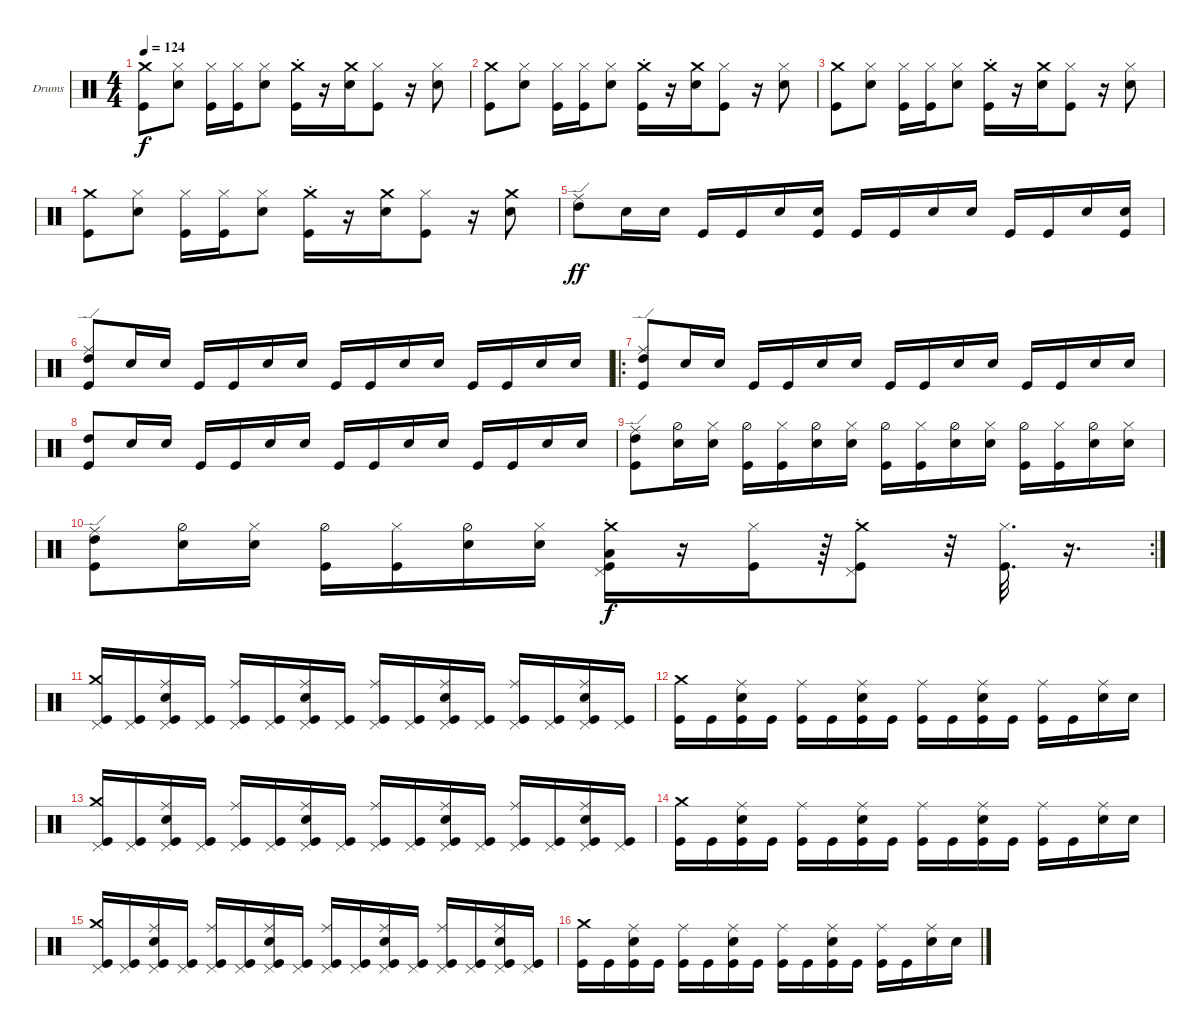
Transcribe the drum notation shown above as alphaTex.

\defaultSystemsLayout 4
\bracketExtendMode groupsimilarinstruments
\firstSystemTrackNameOrientation horizontal
\otherSystemsTrackNameOrientation horizontal
\track ("Drumkit" "Drums") {instrument percussion}
\staff {score}
\articulation defaults
\ts (4 4)
\tempo 124
\clef neutral
\ks c
("Kick (hit)" "Crash medium (hit)").8{dy f} ("Snare (hit) 2" "Hi-Hat (closed)").8 ("Hi-Hat (closed)" "Kick (hit)").16 ("Kick (hit)" "Hi-Hat (closed)").16 ("Snare (hit) 2" "Hi-Hat (closed)").8 ("Kick (hit)"{st} "Crash medium (hit)"{st}).16 r.16 ("Crash medium (hit)" "Snare (hit) 2").16 ("Kick (hit)" "Hi-Hat (closed)").8 r.16 ("Hi-Hat (closed)" "Snare (hit) 2").8 |
("Kick (hit)" "Crash medium (hit)").8 ("Snare (hit) 2" "Hi-Hat (closed)").8 ("Hi-Hat (closed)" "Kick (hit)").16 ("Kick (hit)" "Hi-Hat (closed)").16 ("Snare (hit) 2" "Hi-Hat (closed)").8 ("Kick (hit)"{st} "Crash medium (hit)"{st}).16 r.16 ("Crash medium (hit)" "Snare (hit) 2").16 ("Kick (hit)" "Hi-Hat (closed)").8 r.16 ("Hi-Hat (closed)" "Snare (hit) 2").8 |
("Kick (hit)" "Crash medium (hit)").8 ("Snare (hit) 2" "Hi-Hat (closed)").8 ("Hi-Hat (closed)" "Kick (hit)").16 ("Kick (hit)" "Hi-Hat (closed)").16 ("Snare (hit) 2" "Hi-Hat (closed)").8 ("Kick (hit)"{st} "Crash medium (hit)"{st}).16 r.16 ("Crash medium (hit)" "Snare (hit) 2").16 ("Kick (hit)" "Hi-Hat (closed)").8 r.16 ("Hi-Hat (closed)" "Snare (hit) 2").8 |
("Kick (hit)" "Crash medium (hit)").8 ("Snare (hit) 2" "Hi-Hat (closed)").8 ("Hi-Hat (closed)" "Kick (hit)").16 ("Kick (hit)" "Hi-Hat (closed)").16 ("Snare (hit) 2" "Hi-Hat (closed)").8 ("Kick (hit)"{st} "Crash medium (hit)"{st}).16 r.16 ("Crash medium (hit)" "Snare (hit) 2").16 ("Kick (hit)" "Hi-Hat (closed)").8 r.16 ("Snare (hit) 2" "Crash medium (hit)").8 |
("Ride (edge)" "High Tom (hit)").8{dy ff} "Snare (hit) 2".16 "Snare (hit) 2".16 "Kick (hit)".16 "Kick (hit)".16 "Snare (hit) 2".16 ("Snare (hit) 2" "Kick (hit)").16 "Kick (hit)".16 "Kick (hit)".16 "Snare (hit) 2".16 "Snare (hit) 2".16 "Kick (hit)".16 "Kick (hit)".16 "Snare (hit) 2".16 ("Snare (hit) 2" "Kick (hit)").16 |
("Kick (hit)" "Ride (edge)" "High Tom (hit)").8 "Snare (hit) 2".16 "Snare (hit) 2".16 "Kick (hit)".16 "Kick (hit)".16 "Snare (hit) 2".16 "Snare (hit) 2".16 "Kick (hit)".16 "Kick (hit)".16 "Snare (hit) 2".16 "Snare (hit) 2".16 "Kick (hit)".16 "Kick (hit)".16 "Snare (hit) 2".16 "Snare (hit) 2".16 |
\ro
("Kick (hit)" "Ride (edge)" "High Tom (hit)").8 "Snare (hit) 2".16 "Snare (hit) 2".16 "Kick (hit)".16 "Kick (hit)".16 "Snare (hit) 2".16 "Snare (hit) 2".16 "Kick (hit)".16 "Kick (hit)".16 "Snare (hit) 2".16 "Snare (hit) 2".16 "Kick (hit)".16 "Kick (hit)".16 "Snare (hit) 2".16 "Snare (hit) 2".16 |
("Kick (hit)" "High Tom (hit)").8 "Snare (hit) 2".16 "Snare (hit) 2".16 "Kick (hit)".16 "Kick (hit)".16 "Snare (hit) 2".16 "Snare (hit) 2".16 "Kick (hit)".16 "Kick (hit)".16 "Snare (hit) 2".16 "Snare (hit) 2".16 "Kick (hit)".16 "Kick (hit)".16 "Snare (hit) 2".16 "Snare (hit) 2".16 |
("Kick (hit)" "Ride (edge)" "High Tom (hit)").8 ("Snare (hit) 2" "Hi-Hat (half)").16 ("Snare (hit) 2" "Hi-Hat (closed)").16 ("Kick (hit)" "Hi-Hat (half)").16 ("Kick (hit)" "Hi-Hat (closed)").16 ("Snare (hit) 2" "Hi-Hat (half)").16 ("Snare (hit) 2" "Hi-Hat (closed)").16 ("Kick (hit)" "Hi-Hat (half)").16 ("Kick (hit)" "Hi-Hat (closed)").16 ("Snare (hit) 2" "Hi-Hat (half)").16 ("Snare (hit) 2" "Hi-Hat (closed)").16 ("Kick (hit)" "Hi-Hat (half)").16 ("Kick (hit)" "Hi-Hat (closed)").16 ("Snare (hit) 2" "Hi-Hat (half)").16 ("Snare (hit) 2" "Hi-Hat (closed)").16 |
\rc 2
("Kick (hit)" "Ride (edge)" "High Tom (hit)").8 ("Snare (hit) 2" "Hi-Hat (half)").16 ("Snare (hit) 2" "Hi-Hat (closed)").16 ("Kick (hit)" "Hi-Hat (half)").16 ("Kick (hit)" "Hi-Hat (closed)").16 ("Snare (hit) 2" "Hi-Hat (half)").16 ("Snare (hit) 2" "Hi-Hat (closed)").16 ("Kick (hit)" "Crash medium (hit)"{st} "Pedal Hi-Hat (hit)" "Low Tom (hit)").16{dy f} r.16 ("Hi-Hat (closed)" "Kick (hit)").16 r.64 ("Kick (hit)" "Crash medium (hit)"{st} "Pedal Hi-Hat (hit)").8 r.32 ("Hi-Hat (closed)" "Kick (hit)").32{d} r.16{d} |
("Crash medium (hit)" "Kick (hit)" "Pedal Hi-Hat (hit)").16 ("Kick (hit)" "Pedal Hi-Hat (hit)").16 ("Snare (hit) 2" "Ride (middle)" "Kick (hit)" "Pedal Hi-Hat (hit)").16 ("Kick (hit)" "Pedal Hi-Hat (hit)").16 ("Ride (middle)" "Kick (hit)" "Pedal Hi-Hat (hit)").16 ("Kick (hit)" "Pedal Hi-Hat (hit)").16 ("Snare (hit) 2" "Ride (middle)" "Kick (hit)" "Pedal Hi-Hat (hit)").16 ("Kick (hit)" "Pedal Hi-Hat (hit)").16 ("Ride (middle)" "Kick (hit)" "Pedal Hi-Hat (hit)").16 ("Kick (hit)" "Pedal Hi-Hat (hit)").16 ("Snare (hit) 2" "Ride (middle)" "Kick (hit)" "Pedal Hi-Hat (hit)").16 ("Kick (hit)" "Pedal Hi-Hat (hit)").16 ("Ride (middle)" "Kick (hit)" "Pedal Hi-Hat (hit)").16 ("Kick (hit)" "Pedal Hi-Hat (hit)").16 ("Snare (hit) 2" "Ride (middle)" "Kick (hit)" "Pedal Hi-Hat (hit)").16 ("Kick (hit)" "Pedal Hi-Hat (hit)").16 |
("Crash medium (hit)" "Kick (hit)").16 "Kick (hit)".16 ("Snare (hit) 2" "Ride (middle)" "Kick (hit)").16 "Kick (hit)".16 ("Ride (middle)" "Kick (hit)").16 "Kick (hit)".16 ("Snare (hit) 2" "Ride (middle)" "Kick (hit)").16 "Kick (hit)".16 ("Ride (middle)" "Kick (hit)").16 "Kick (hit)".16 ("Snare (hit) 2" "Ride (middle)" "Kick (hit)").16 "Kick (hit)".16 ("Ride (middle)" "Kick (hit)").16 "Kick (hit)".16 ("Snare (hit) 2" "Ride (middle)").16 "Snare (hit) 2".16 |
("Crash medium (hit)" "Kick (hit)" "Pedal Hi-Hat (hit)").16 ("Kick (hit)" "Pedal Hi-Hat (hit)").16 ("Snare (hit) 2" "Ride (middle)" "Kick (hit)" "Pedal Hi-Hat (hit)").16 ("Kick (hit)" "Pedal Hi-Hat (hit)").16 ("Ride (middle)" "Kick (hit)" "Pedal Hi-Hat (hit)").16 ("Kick (hit)" "Pedal Hi-Hat (hit)").16 ("Snare (hit) 2" "Ride (middle)" "Kick (hit)" "Pedal Hi-Hat (hit)").16 ("Kick (hit)" "Pedal Hi-Hat (hit)").16 ("Ride (middle)" "Kick (hit)" "Pedal Hi-Hat (hit)").16 ("Kick (hit)" "Pedal Hi-Hat (hit)").16 ("Snare (hit) 2" "Ride (middle)" "Kick (hit)" "Pedal Hi-Hat (hit)").16 ("Kick (hit)" "Pedal Hi-Hat (hit)").16 ("Ride (middle)" "Kick (hit)" "Pedal Hi-Hat (hit)").16 ("Kick (hit)" "Pedal Hi-Hat (hit)").16 ("Snare (hit) 2" "Ride (middle)" "Kick (hit)" "Pedal Hi-Hat (hit)").16 ("Kick (hit)" "Pedal Hi-Hat (hit)").16 |
("Crash medium (hit)" "Kick (hit)").16 "Kick (hit)".16 ("Snare (hit) 2" "Ride (middle)" "Kick (hit)").16 "Kick (hit)".16 ("Ride (middle)" "Kick (hit)").16 "Kick (hit)".16 ("Snare (hit) 2" "Ride (middle)" "Kick (hit)").16 "Kick (hit)".16 ("Ride (middle)" "Kick (hit)").16 "Kick (hit)".16 ("Snare (hit) 2" "Ride (middle)" "Kick (hit)").16 "Kick (hit)".16 ("Ride (middle)" "Kick (hit)").16 "Kick (hit)".16 ("Snare (hit) 2" "Ride (middle)").16 "Snare (hit) 2".16 |
("Crash medium (hit)" "Kick (hit)" "Pedal Hi-Hat (hit)").16 ("Kick (hit)" "Pedal Hi-Hat (hit)").16 ("Snare (hit) 2" "Ride (middle)" "Kick (hit)" "Pedal Hi-Hat (hit)").16 ("Kick (hit)" "Pedal Hi-Hat (hit)").16 ("Ride (middle)" "Kick (hit)" "Pedal Hi-Hat (hit)").16 ("Kick (hit)" "Pedal Hi-Hat (hit)").16 ("Snare (hit) 2" "Ride (middle)" "Kick (hit)" "Pedal Hi-Hat (hit)").16 ("Kick (hit)" "Pedal Hi-Hat (hit)").16 ("Ride (middle)" "Kick (hit)" "Pedal Hi-Hat (hit)").16 ("Kick (hit)" "Pedal Hi-Hat (hit)").16 ("Snare (hit) 2" "Ride (middle)" "Kick (hit)" "Pedal Hi-Hat (hit)").16 ("Kick (hit)" "Pedal Hi-Hat (hit)").16 ("Ride (middle)" "Kick (hit)" "Pedal Hi-Hat (hit)").16 ("Kick (hit)" "Pedal Hi-Hat (hit)").16 ("Snare (hit) 2" "Ride (middle)" "Kick (hit)" "Pedal Hi-Hat (hit)").16 ("Kick (hit)" "Pedal Hi-Hat (hit)").16 |
("Crash medium (hit)" "Kick (hit)").16 "Kick (hit)".16 ("Snare (hit) 2" "Ride (middle)" "Kick (hit)").16 "Kick (hit)".16 ("Ride (middle)" "Kick (hit)").16 "Kick (hit)".16 ("Snare (hit) 2" "Ride (middle)" "Kick (hit)").16 "Kick (hit)".16 ("Ride (middle)" "Kick (hit)").16 "Kick (hit)".16 ("Snare (hit) 2" "Ride (middle)" "Kick (hit)").16 "Kick (hit)".16 ("Ride (middle)" "Kick (hit)").16 "Kick (hit)".16 ("Snare (hit) 2" "Ride (middle)").16 "Snare (hit) 2".16
